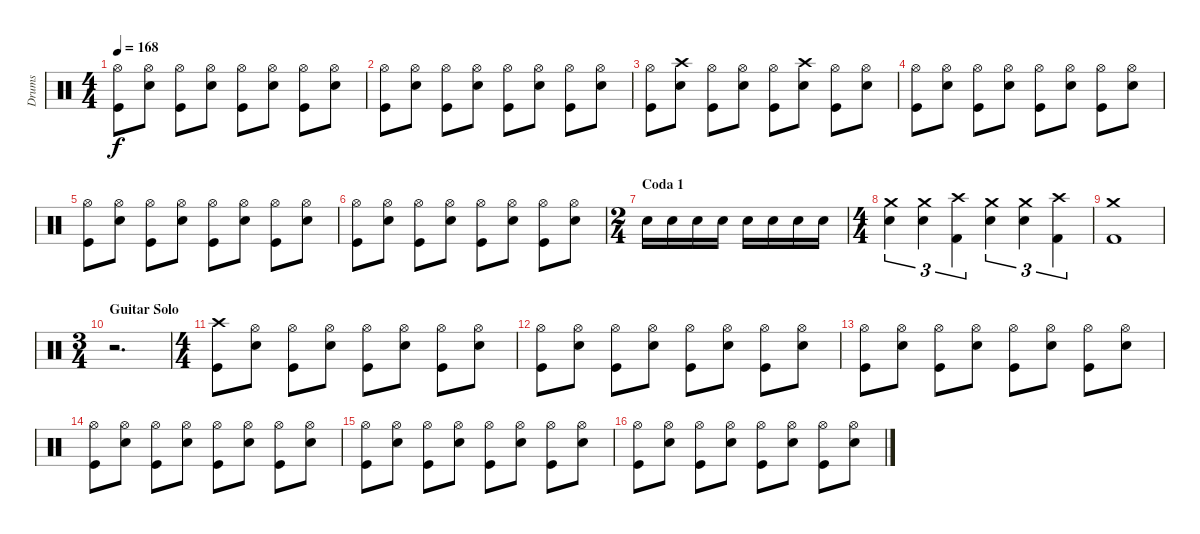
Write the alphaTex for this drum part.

\track ("Drums" "Drums") {instrument percussion}
\staff {score}
\articulation defaults
\ts (4 4)
\tempo 168
\clef neutral
\ks c
("Hi-Hat (open)" "Kick (hit)").8{dy f} ("Hi-Hat (open)" "Snare (hit) 2").8 ("Hi-Hat (open)" "Kick (hit)").8 ("Hi-Hat (open)" "Snare (hit) 2").8 ("Hi-Hat (open)" "Kick (hit)").8 ("Hi-Hat (open)" "Snare (hit) 2").8 ("Hi-Hat (open)" "Kick (hit)").8 ("Hi-Hat (open)" "Snare (hit) 2").8 |
("Hi-Hat (open)" "Kick (hit)").8 ("Hi-Hat (open)" "Snare (hit) 2").8 ("Hi-Hat (open)" "Kick (hit)").8 ("Hi-Hat (open)" "Snare (hit) 2").8 ("Hi-Hat (open)" "Kick (hit)").8 ("Hi-Hat (open)" "Snare (hit) 2").8 ("Hi-Hat (open)" "Kick (hit)").8 ("Hi-Hat (open)" "Snare (hit) 2").8 |
("Hi-Hat (open)" "Kick (hit)").8 ("Crash high (hit)" "Snare (hit) 2").8 ("Hi-Hat (open)" "Kick (hit)").8 ("Hi-Hat (open)" "Snare (hit) 2").8 ("Hi-Hat (open)" "Kick (hit)").8 ("Crash high (hit)" "Snare (hit) 2").8 ("Hi-Hat (open)" "Kick (hit)").8 ("Hi-Hat (open)" "Snare (hit) 2").8 |
("Hi-Hat (open)" "Kick (hit)").8 ("Hi-Hat (open)" "Snare (hit) 2").8 ("Hi-Hat (open)" "Kick (hit)").8 ("Hi-Hat (open)" "Snare (hit) 2").8 ("Hi-Hat (open)" "Kick (hit)").8 ("Hi-Hat (open)" "Snare (hit) 2").8 ("Hi-Hat (open)" "Kick (hit)").8 ("Hi-Hat (open)" "Snare (hit) 2").8 |
("Hi-Hat (open)" "Kick (hit)").8 ("Hi-Hat (open)" "Snare (hit) 2").8 ("Hi-Hat (open)" "Kick (hit)").8 ("Hi-Hat (open)" "Snare (hit) 2").8 ("Hi-Hat (open)" "Kick (hit)").8 ("Hi-Hat (open)" "Snare (hit) 2").8 ("Hi-Hat (open)" "Kick (hit)").8 ("Hi-Hat (open)" "Snare (hit) 2").8 |
("Hi-Hat (open)" "Kick (hit)").8 ("Hi-Hat (open)" "Snare (hit) 2").8 ("Hi-Hat (open)" "Kick (hit)").8 ("Hi-Hat (open)" "Snare (hit) 2").8 ("Hi-Hat (open)" "Kick (hit)").8 ("Hi-Hat (open)" "Snare (hit) 2").8 ("Hi-Hat (open)" "Kick (hit)").8 ("Hi-Hat (open)" "Snare (hit) 2").8 |
\ts (2 4)
\section ("" "Coda 1")
"Snare (hit) 2".16 "Snare (hit) 2".16 "Snare (hit) 2".16 "Snare (hit) 2".16 "Snare (hit) 2".16 "Snare (hit) 2".16 "Snare (hit) 2".16 "Snare (hit) 2".16 |
\ts (4 4)
("Crash medium (hit)" "Snare (hit) 2").4{tu (3 2)} ("Crash medium (hit)" "Snare (hit) 2").4{tu (3 2)} ("Crash high (hit)" "Kick (hit) 2").4{tu (3 2)} ("Crash medium (hit)" "Snare (hit) 2").4{tu (3 2)} ("Crash medium (hit)" "Snare (hit) 2").4{tu (3 2)} ("Crash high (hit)" "Kick (hit) 2").4{tu (3 2)} |
("Crash medium (hit)" "Kick (hit) 2").1 |
\ts (3 4)
\section ("" "Guitar Solo")
r.2{d} |
\ts (4 4)
("Crash high (hit)" "Kick (hit)").8 ("Hi-Hat (open)" "Snare (hit) 2").8 ("Hi-Hat (open)" "Kick (hit)").8 ("Hi-Hat (open)" "Snare (hit) 2").8 ("Hi-Hat (open)" "Kick (hit)").8 ("Hi-Hat (open)" "Snare (hit) 2").8 ("Hi-Hat (open)" "Kick (hit)").8 ("Hi-Hat (open)" "Snare (hit) 2").8 |
("Hi-Hat (open)" "Kick (hit)").8 ("Hi-Hat (open)" "Snare (hit) 2").8 ("Hi-Hat (open)" "Kick (hit)").8 ("Hi-Hat (open)" "Snare (hit) 2").8 ("Hi-Hat (open)" "Kick (hit)").8 ("Hi-Hat (open)" "Snare (hit) 2").8 ("Hi-Hat (open)" "Kick (hit)").8 ("Hi-Hat (open)" "Snare (hit) 2").8 |
("Hi-Hat (open)" "Kick (hit)").8 ("Hi-Hat (open)" "Snare (hit) 2").8 ("Hi-Hat (open)" "Kick (hit)").8 ("Hi-Hat (open)" "Snare (hit) 2").8 ("Hi-Hat (open)" "Kick (hit)").8 ("Hi-Hat (open)" "Snare (hit) 2").8 ("Hi-Hat (open)" "Kick (hit)").8 ("Hi-Hat (open)" "Snare (hit) 2").8 |
("Hi-Hat (open)" "Kick (hit)").8 ("Hi-Hat (open)" "Snare (hit) 2").8 ("Hi-Hat (open)" "Kick (hit)").8 ("Hi-Hat (open)" "Snare (hit) 2").8 ("Hi-Hat (open)" "Kick (hit)").8 ("Hi-Hat (open)" "Snare (hit) 2").8 ("Hi-Hat (open)" "Kick (hit)").8 ("Hi-Hat (open)" "Snare (hit) 2").8 |
("Hi-Hat (open)" "Kick (hit)").8 ("Hi-Hat (open)" "Snare (hit) 2").8 ("Hi-Hat (open)" "Kick (hit)").8 ("Hi-Hat (open)" "Snare (hit) 2").8 ("Hi-Hat (open)" "Kick (hit)").8 ("Hi-Hat (open)" "Snare (hit) 2").8 ("Hi-Hat (open)" "Kick (hit)").8 ("Hi-Hat (open)" "Snare (hit) 2").8 |
("Hi-Hat (open)" "Kick (hit)").8 ("Hi-Hat (open)" "Snare (hit) 2").8 ("Hi-Hat (open)" "Kick (hit)").8 ("Hi-Hat (open)" "Snare (hit) 2").8 ("Hi-Hat (open)" "Kick (hit)").8 ("Hi-Hat (open)" "Snare (hit) 2").8 ("Hi-Hat (open)" "Kick (hit)").8 ("Hi-Hat (open)" "Snare (hit) 2").8
